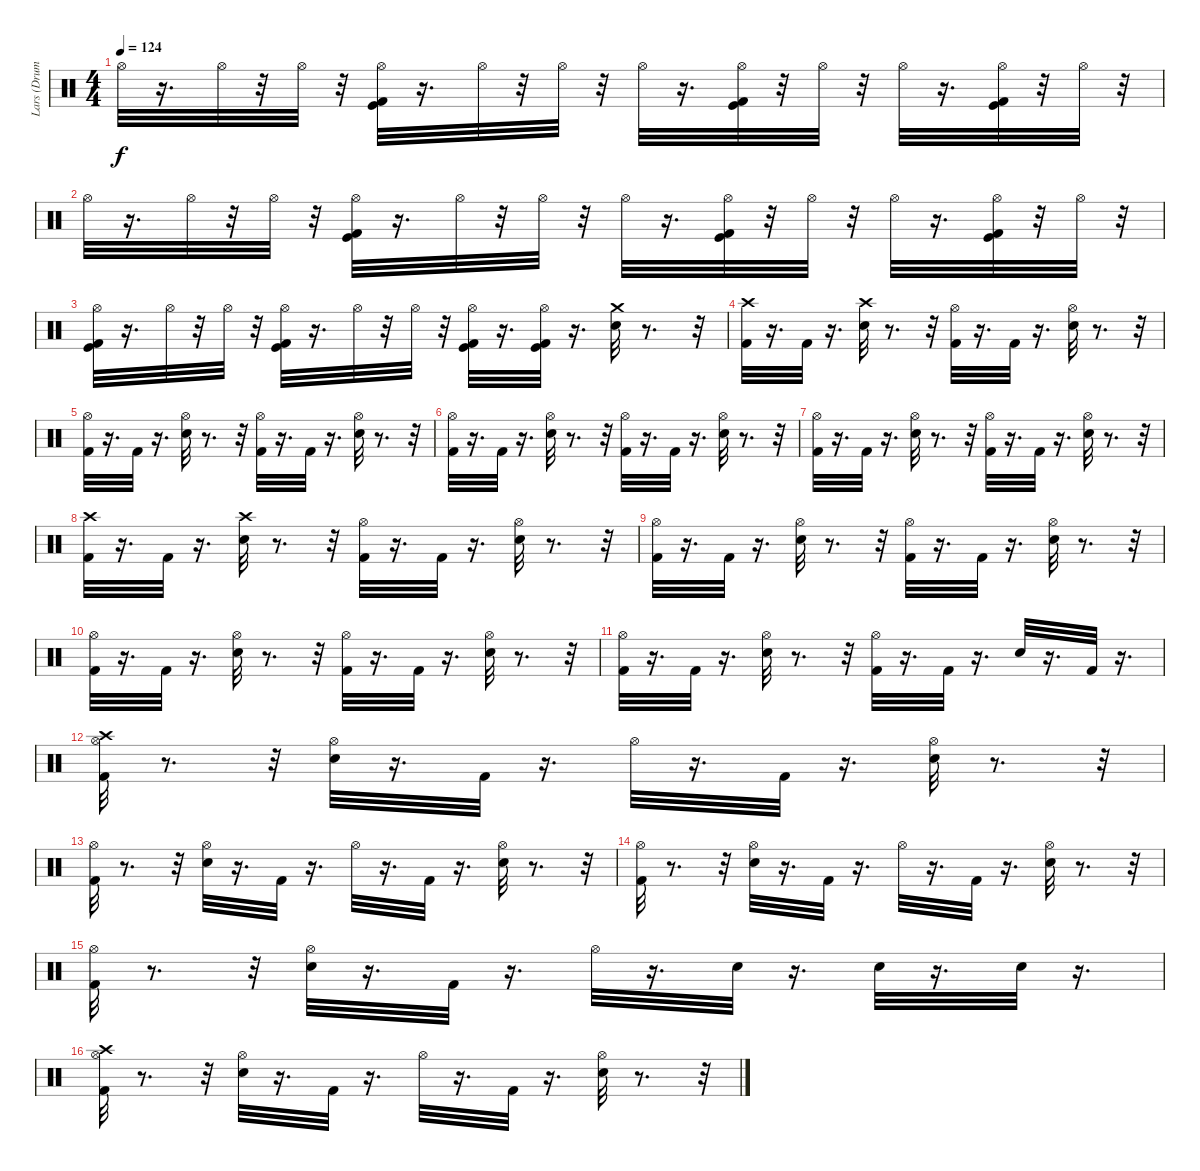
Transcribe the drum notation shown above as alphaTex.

\track ("Lars (Drums)" "Lars (Drum") {instrument percussion}
\staff {score}
\articulation defaults
\ts (4 4)
\tempo 124
\clef neutral
\ks c "Hi-Hat (open)".32{dy f}
r.16{d} "Hi-Hat (open)".32 r.32 "Hi-Hat (open)".32 r.32 ("Hi-Hat (open)" "Kick (hit) 2" "Kick (hit)").32 r.16{d} "Hi-Hat (open)".32 r.32 "Hi-Hat (open)".32 r.32 "Hi-Hat (open)".32 r.16{d} ("Hi-Hat (open)" "Kick (hit) 2" "Kick (hit)").32 r.32 "Hi-Hat (open)".32 r.32 "Hi-Hat (open)".32 r.16{d} ("Hi-Hat (open)" "Kick (hit)" "Kick (hit) 2").32 r.32 "Hi-Hat (open)".32 r.32 |
"Hi-Hat (open)".32 r.16{d} "Hi-Hat (open)".32 r.32 "Hi-Hat (open)".32 r.32 ("Hi-Hat (open)" "Kick (hit) 2" "Kick (hit)").32 r.16{d} "Hi-Hat (open)".32 r.32 "Hi-Hat (open)".32 r.32 "Hi-Hat (open)".32 r.16{d} ("Hi-Hat (open)" "Kick (hit) 2" "Kick (hit)").32 r.32 "Hi-Hat (open)".32 r.32 "Hi-Hat (open)".32 r.16{d} ("Hi-Hat (open)" "Kick (hit)" "Kick (hit) 2").32 r.32 "Hi-Hat (open)".32 r.32 |
("Kick (hit)" "Kick (hit) 2" "Hi-Hat (open)").32 r.16{d} "Hi-Hat (open)".32 r.32 "Hi-Hat (open)".32 r.32 ("Kick (hit)" "Kick (hit) 2" "Hi-Hat (open)").32 r.16{d} "Hi-Hat (open)".32 r.32 "Hi-Hat (open)".32 r.32 ("Kick (hit) 2" "Kick (hit)" "Hi-Hat (open)").32 r.16{d} ("Kick (hit)" "Kick (hit) 2" "Hi-Hat (open)").32 r.16{d} ("Crash medium (hit)" "Electric Snare (hit)").32 r.8{d} r.32 |
("Kick (hit) 2" "Crash high (hit)").32 r.16{d} "Kick (hit) 2".32 r.16{d} ("Electric Snare (hit)" "Crash high (hit)").32 r.8{d} r.32 ("Kick (hit) 2" "Hi-Hat (open)").32 r.16{d} "Kick (hit) 2".32 r.16{d} ("Electric Snare (hit)" "Hi-Hat (open)").32 r.8{d} r.32 |
("Kick (hit) 2" "Hi-Hat (open)").32 r.16{d} "Kick (hit) 2".32 r.16{d} ("Electric Snare (hit)" "Hi-Hat (open)").32 r.8{d} r.32 ("Kick (hit) 2" "Hi-Hat (open)").32 r.16{d} "Kick (hit) 2".32 r.16{d} ("Electric Snare (hit)" "Hi-Hat (open)").32 r.8{d} r.32 |
("Kick (hit) 2" "Hi-Hat (open)").32 r.16{d} "Kick (hit) 2".32 r.16{d} ("Electric Snare (hit)" "Hi-Hat (open)").32 r.8{d} r.32 ("Kick (hit) 2" "Hi-Hat (open)").32 r.16{d} "Kick (hit) 2".32 r.16{d} ("Electric Snare (hit)" "Hi-Hat (open)").32 r.8{d} r.32 |
("Kick (hit) 2" "Hi-Hat (open)").32 r.16{d} "Kick (hit) 2".32 r.16{d} ("Electric Snare (hit)" "Hi-Hat (open)").32 r.8{d} r.32 ("Kick (hit) 2" "Hi-Hat (open)").32 r.16{d} "Kick (hit) 2".32 r.16{d} ("Electric Snare (hit)" "Hi-Hat (open)").32 r.8{d} r.32 |
("Kick (hit) 2" "Crash high (hit)").32 r.16{d} "Kick (hit) 2".32 r.16{d} ("Electric Snare (hit)" "Crash high (hit)").32 r.8{d} r.32 ("Kick (hit) 2" "Hi-Hat (open)").32 r.16{d} "Kick (hit) 2".32 r.16{d} ("Electric Snare (hit)" "Hi-Hat (open)").32 r.8{d} r.32 |
("Kick (hit) 2" "Hi-Hat (open)").32 r.16{d} "Kick (hit) 2".32 r.16{d} ("Electric Snare (hit)" "Hi-Hat (open)").32 r.8{d} r.32 ("Kick (hit) 2" "Hi-Hat (open)").32 r.16{d} "Kick (hit) 2".32 r.16{d} ("Electric Snare (hit)" "Hi-Hat (open)").32 r.8{d} r.32 |
("Kick (hit) 2" "Hi-Hat (open)").32 r.16{d} "Kick (hit) 2".32 r.16{d} ("Electric Snare (hit)" "Hi-Hat (open)").32 r.8{d} r.32 ("Kick (hit) 2" "Hi-Hat (open)").32 r.16{d} "Kick (hit) 2".32 r.16{d} ("Electric Snare (hit)" "Hi-Hat (open)").32 r.8{d} r.32 |
("Kick (hit) 2" "Hi-Hat (open)").32 r.16{d} "Kick (hit) 2".32 r.16{d} ("Electric Snare (hit)" "Hi-Hat (open)").32 r.8{d} r.32 ("Kick (hit) 2" "Hi-Hat (open)").32 r.16{d} "Kick (hit) 2".32 r.16{d} "Electric Snare (hit)".32 r.16{d} "Kick (hit) 2".32 r.16{d} |
("Crash high (hit)" "Hi-Hat (open)" "Kick (hit) 2").32 r.8{d} r.32 ("Electric Snare (hit)" "Hi-Hat (open)").32 r.16{d} "Kick (hit) 2".32 r.16{d} "Hi-Hat (open)".32 r.16{d} "Kick (hit) 2".32 r.16{d} ("Electric Snare (hit)" "Hi-Hat (open)").32 r.8{d} r.32 |
("Hi-Hat (open)" "Kick (hit) 2").32 r.8{d} r.32 ("Electric Snare (hit)" "Hi-Hat (open)").32 r.16{d} "Kick (hit) 2".32 r.16{d} "Hi-Hat (open)".32 r.16{d} "Kick (hit) 2".32 r.16{d} ("Electric Snare (hit)" "Hi-Hat (open)").32 r.8{d} r.32 |
("Hi-Hat (open)" "Kick (hit) 2").32 r.8{d} r.32 ("Electric Snare (hit)" "Hi-Hat (open)").32 r.16{d} "Kick (hit) 2".32 r.16{d} "Hi-Hat (open)".32 r.16{d} "Kick (hit) 2".32 r.16{d} ("Electric Snare (hit)" "Hi-Hat (open)").32 r.8{d} r.32 |
("Hi-Hat (open)" "Kick (hit) 2").32 r.8{d} r.32 ("Electric Snare (hit)" "Hi-Hat (open)").32 r.16{d} "Kick (hit) 2".32 r.16{d} "Hi-Hat (open)".32 r.16{d} "Electric Snare (hit)".32 r.16{d} "Electric Snare (hit)".32 r.16{d} "Electric Snare (hit)".32 r.16{d} |
("Crash high (hit)" "Hi-Hat (open)" "Kick (hit) 2").32 r.8{d} r.32 ("Electric Snare (hit)" "Hi-Hat (open)").32 r.16{d} "Kick (hit) 2".32 r.16{d} "Hi-Hat (open)".32 r.16{d} "Kick (hit) 2".32 r.16{d} ("Electric Snare (hit)" "Hi-Hat (open)").32 r.8{d} r.32
